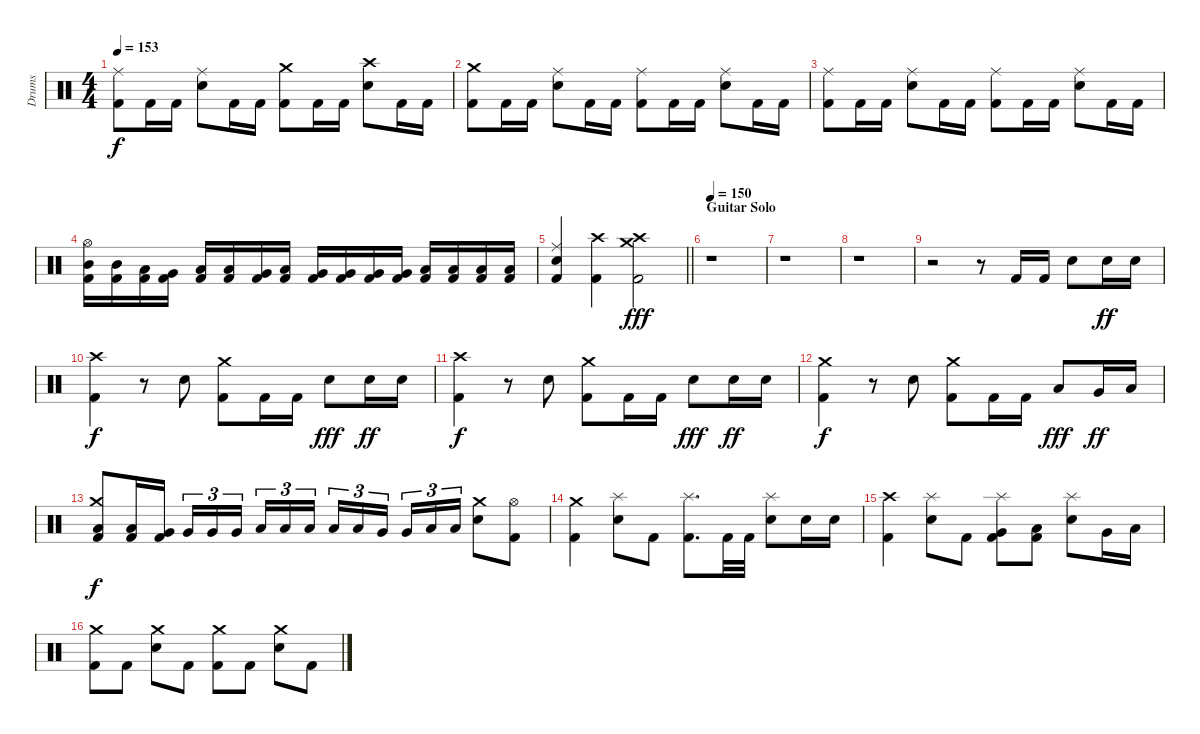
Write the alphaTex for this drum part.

\track ("Drums" "Drums") {instrument percussion}
\staff
\articulation defaults
\ts (4 4)
\tempo 153
\clef neutral
\ks c
("Kick (hit) 2" "Ride (middle)").8{dy f} "Kick (hit) 2".16 "Kick (hit) 2".16 ("Electric Snare (hit)" "Ride (middle)").8 "Kick (hit) 2".16 "Kick (hit) 2".16 ("Kick (hit) 2" "Crash medium (hit)").8 "Kick (hit) 2".16 "Kick (hit) 2".16 ("Electric Snare (hit)" "Crash high (hit)").8 "Kick (hit) 2".16 "Kick (hit) 2".16 |
("Kick (hit) 2" "Crash medium (hit)").8 "Kick (hit) 2".16 "Kick (hit) 2".16 ("Electric Snare (hit)" "Ride (middle)").8 "Kick (hit) 2".16 "Kick (hit) 2".16 ("Kick (hit) 2" "Ride (middle)").8 "Kick (hit) 2".16 "Kick (hit) 2".16 ("Electric Snare (hit)" "Ride (middle)").8 "Kick (hit) 2".16 "Kick (hit) 2".16 |
("Kick (hit) 2" "Ride (middle)").8 "Kick (hit) 2".16 "Kick (hit) 2".16 ("Electric Snare (hit)" "Ride (middle)").8 "Kick (hit) 2".16 "Kick (hit) 2".16 ("Kick (hit) 2" "Ride (middle)").8 "Kick (hit) 2".16 "Kick (hit) 2".16 ("Electric Snare (hit)" "Ride (middle)").8 "Kick (hit) 2".16 "Kick (hit) 2".16 |
("Kick (hit) 2" "Mid Tom (hit)" "Hi-Hat (open)").16 ("Kick (hit) 2" "Mid Tom (hit)").16 ("Kick (hit) 2" "Low Tom (hit)").16 ("Kick (hit) 2" "Very Low Tom (hit)").16 ("Kick (hit) 2" "Low Tom (hit)").16 ("Kick (hit) 2" "Low Tom (hit)").16 ("Kick (hit) 2" "Very Low Tom (hit)").16 ("Kick (hit) 2" "Low Floor Tom (hit)").16 ("Kick (hit) 2" "Very Low Tom (hit)").16 ("Kick (hit) 2" "Very Low Tom (hit)").16 ("Kick (hit) 2" "Very Low Tom (hit)").16 ("Kick (hit) 2" "Very Low Tom (hit)").16 ("Kick (hit) 2" "Low Floor Tom (hit)").16 ("Kick (hit) 2" "Low Floor Tom (hit)").16 ("Kick (hit) 2" "Low Floor Tom (hit)").16 ("Kick (hit) 2" "Low Floor Tom (hit)").16 |
\barLineRight lightlight
("Kick (hit) 2" "Electric Snare (hit)" "Ride (middle)").4 ("Kick (hit) 2" "Crash high (hit)").4 ("Kick (hit) 2" "Crash medium (hit)" "Crash high (hit)").2{dy fff} |
\section ("" "Guitar Solo")
\tempo 150
r.1 |
r.1 |
r.1 |
r.2 r.8 "Kick (hit) 2".16 "Kick (hit) 2".16 "Electric Snare (hit)".8 "Electric Snare (hit)".16{dy ff} "Electric Snare (hit)".16 |
("Kick (hit) 2" "Crash high (hit)").4{dy f} r.8 "Electric Snare (hit)".8 ("Kick (hit) 2" "Crash medium (hit)").8 "Kick (hit) 2".16 "Kick (hit) 2".16 "Electric Snare (hit)".8{dy fff} "Electric Snare (hit)".16{dy ff} "Electric Snare (hit)".16 |
("Kick (hit) 2" "Crash high (hit)").4{dy f} r.8 "Electric Snare (hit)".8 ("Kick (hit) 2" "Crash medium (hit)").8 "Kick (hit) 2".16 "Kick (hit) 2".16 "Electric Snare (hit)".8{dy fff} "Electric Snare (hit)".16{dy ff} "Electric Snare (hit)".16 |
("Kick (hit) 2" "Crash medium (hit)").4{dy f} r.8 "Electric Snare (hit)".8 ("Kick (hit) 2" "Crash medium (hit)").8 "Kick (hit) 2".16 "Kick (hit) 2".16 "Low Tom (hit)".8{dy fff} "Very Low Tom (hit)".16{dy ff} "Low Floor Tom (hit)".16 |
("Kick (hit) 2" "Low Tom (hit)" "Crash medium (hit)").8{dy f} ("Kick (hit) 2" "Low Tom (hit)").16 ("Kick (hit) 2" "Very Low Tom (hit)").16 "Very Low Tom (hit)".16{tu (3 2)} "Very Low Tom (hit)".16{tu (3 2)} "Very Low Tom (hit)".16{tu (3 2) beam splitsecondary} "Low Floor Tom (hit)".16{tu (3 2)} "Low Floor Tom (hit)".16{tu (3 2)} "Low Floor Tom (hit)".16{tu (3 2)} "Low Tom (hit)".16{tu (3 2)} "Low Tom (hit)".16{tu (3 2)} "Very Low Tom (hit)".16{tu (3 2) beam splitsecondary} "Very Low Tom (hit)".16{tu (3 2)} "Low Floor Tom (hit)".16{tu (3 2)} "Low Floor Tom (hit)".16{tu (3 2)} ("Electric Snare (hit)" "Crash medium (hit)").8 ("Kick (hit) 2" "Hi-Hat (open)").8 |
("Kick (hit) 2" "Crash medium (hit)").4 ("Electric Snare (hit)" "Splash (hit)").8 "Kick (hit) 2".8 ("Kick (hit) 2" "Splash (hit)").8{d} "Kick (hit) 2".32 "Kick (hit) 2".32 ("Electric Snare (hit)" "Splash (hit)").8 "Electric Snare (hit)".16 "Electric Snare (hit)".16 |
("Kick (hit) 2" "Crash high (hit)").4 ("Electric Snare (hit)" "Splash (hit)").8 "Kick (hit) 2".8 ("Kick (hit) 2" "Very Low Tom (hit)" "Splash (hit)").8 ("Kick (hit) 2" "Low Floor Tom (hit)").8 ("Electric Snare (hit)" "Splash (hit)").8 "Very Low Tom (hit)".16 "Low Floor Tom (hit)".16 |
("Kick (hit) 2" "Crash medium (hit)").8 "Kick (hit) 2".8 ("Electric Snare (hit)" "Crash medium (hit)").8 "Kick (hit) 2".8 ("Kick (hit) 2" "Crash medium (hit)").8 "Kick (hit) 2".8 ("Electric Snare (hit)" "Crash medium (hit)").8 "Kick (hit) 2".8
